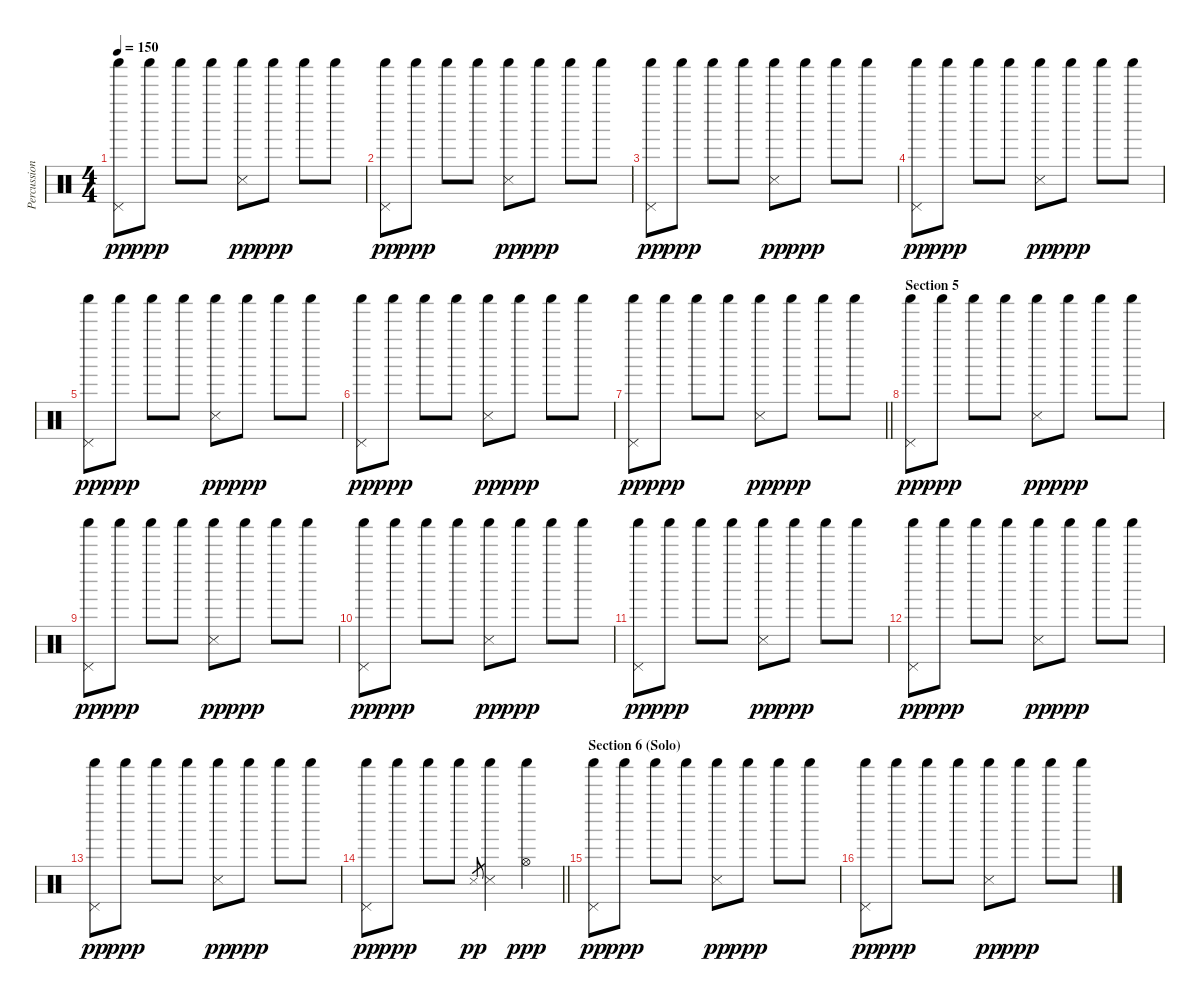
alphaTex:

\track ("Percussion" "Percussion") {instrument percussion}
\staff {score}
\articulation defaults
\ts (4 4)
\tempo 150
\clef neutral
\ks c
("Pedal Hi-Hat (hit)" "Shaker (hit)").8{dy pp} "Shaker (hit)".8{dy ppp} "Shaker (hit)".8 "Shaker (hit)".8 ("Snare (side stick) 3" "Shaker (hit)").8{dy pp} "Shaker (hit)".8{dy ppp} "Shaker (hit)".8 "Shaker (hit)".8 |
("Pedal Hi-Hat (hit)" "Shaker (hit)").8{dy pp} "Shaker (hit)".8{dy ppp} "Shaker (hit)".8 "Shaker (hit)".8 ("Snare (side stick) 3" "Shaker (hit)").8{dy pp} "Shaker (hit)".8{dy ppp} "Shaker (hit)".8 "Shaker (hit)".8 |
("Pedal Hi-Hat (hit)" "Shaker (hit)").8{dy pp} "Shaker (hit)".8{dy ppp} "Shaker (hit)".8 "Shaker (hit)".8 ("Snare (side stick) 3" "Shaker (hit)").8{dy pp} "Shaker (hit)".8{dy ppp} "Shaker (hit)".8 "Shaker (hit)".8 |
("Pedal Hi-Hat (hit)" "Shaker (hit)").8{dy pp} "Shaker (hit)".8{dy ppp} "Shaker (hit)".8 "Shaker (hit)".8 ("Snare (side stick) 3" "Shaker (hit)").8{dy pp} "Shaker (hit)".8{dy ppp} "Shaker (hit)".8 "Shaker (hit)".8 |
("Pedal Hi-Hat (hit)" "Shaker (hit)").8{dy pp} "Shaker (hit)".8{dy ppp} "Shaker (hit)".8 "Shaker (hit)".8 ("Snare (side stick) 3" "Shaker (hit)").8{dy pp} "Shaker (hit)".8{dy ppp} "Shaker (hit)".8 "Shaker (hit)".8 |
("Pedal Hi-Hat (hit)" "Shaker (hit)").8{dy pp} "Shaker (hit)".8{dy ppp} "Shaker (hit)".8 "Shaker (hit)".8 ("Snare (side stick) 3" "Shaker (hit)").8{dy pp} "Shaker (hit)".8{dy ppp} "Shaker (hit)".8 "Shaker (hit)".8 |
\barLineRight lightlight
("Pedal Hi-Hat (hit)" "Shaker (hit)").8{dy pp} "Shaker (hit)".8{dy ppp} "Shaker (hit)".8 "Shaker (hit)".8 ("Snare (side stick) 3" "Shaker (hit)").8{dy pp} "Shaker (hit)".8{dy ppp} "Shaker (hit)".8 "Shaker (hit)".8 |
\section ("" "Section 5")
("Pedal Hi-Hat (hit)" "Shaker (hit)").8{dy pp} "Shaker (hit)".8{dy ppp} "Shaker (hit)".8 "Shaker (hit)".8 ("Snare (side stick) 3" "Shaker (hit)").8{dy pp} "Shaker (hit)".8{dy ppp} "Shaker (hit)".8 "Shaker (hit)".8 |
("Pedal Hi-Hat (hit)" "Shaker (hit)").8{dy pp} "Shaker (hit)".8{dy ppp} "Shaker (hit)".8 "Shaker (hit)".8 ("Snare (side stick) 3" "Shaker (hit)").8{dy pp} "Shaker (hit)".8{dy ppp} "Shaker (hit)".8 "Shaker (hit)".8 |
("Pedal Hi-Hat (hit)" "Shaker (hit)").8{dy pp} "Shaker (hit)".8{dy ppp} "Shaker (hit)".8 "Shaker (hit)".8 ("Snare (side stick) 3" "Shaker (hit)").8{dy pp} "Shaker (hit)".8{dy ppp} "Shaker (hit)".8 "Shaker (hit)".8 |
("Pedal Hi-Hat (hit)" "Shaker (hit)").8{dy pp} "Shaker (hit)".8{dy ppp} "Shaker (hit)".8 "Shaker (hit)".8 ("Snare (side stick) 3" "Shaker (hit)").8{dy pp} "Shaker (hit)".8{dy ppp} "Shaker (hit)".8 "Shaker (hit)".8 |
("Pedal Hi-Hat (hit)" "Shaker (hit)").8{dy pp} "Shaker (hit)".8{dy ppp} "Shaker (hit)".8 "Shaker (hit)".8 ("Snare (side stick) 3" "Shaker (hit)").8{dy pp} "Shaker (hit)".8{dy ppp} "Shaker (hit)".8 "Shaker (hit)".8 |
("Pedal Hi-Hat (hit)" "Shaker (hit)").8{dy pp} "Shaker (hit)".8{dy ppp} "Shaker (hit)".8 "Shaker (hit)".8 ("Snare (side stick) 3" "Shaker (hit)").8{dy pp} "Shaker (hit)".8{dy ppp} "Shaker (hit)".8 "Shaker (hit)".8 |
\barLineRight lightlight
("Pedal Hi-Hat (hit)" "Shaker (hit)").8{dy pp} "Shaker (hit)".8{dy ppp} "Shaker (hit)".8 "Shaker (hit)".8 "Snare (side stick) 3".8{gr dy pp} ("Snare (side stick) 3" "Shaker (hit)").4 ("Hi-Hat (open)" "Shaker (hit)").4{dy ppp} |
\section ("" "Section 6 (Solo)")
("Pedal Hi-Hat (hit)" "Shaker (hit)").8{dy pp} "Shaker (hit)".8{dy ppp} "Shaker (hit)".8 "Shaker (hit)".8 ("Snare (side stick) 3" "Shaker (hit)").8{dy pp} "Shaker (hit)".8{dy ppp} "Shaker (hit)".8 "Shaker (hit)".8 |
("Pedal Hi-Hat (hit)" "Shaker (hit)").8{dy pp} "Shaker (hit)".8{dy ppp} "Shaker (hit)".8 "Shaker (hit)".8 ("Snare (side stick) 3" "Shaker (hit)").8{dy pp} "Shaker (hit)".8{dy ppp} "Shaker (hit)".8 "Shaker (hit)".8
